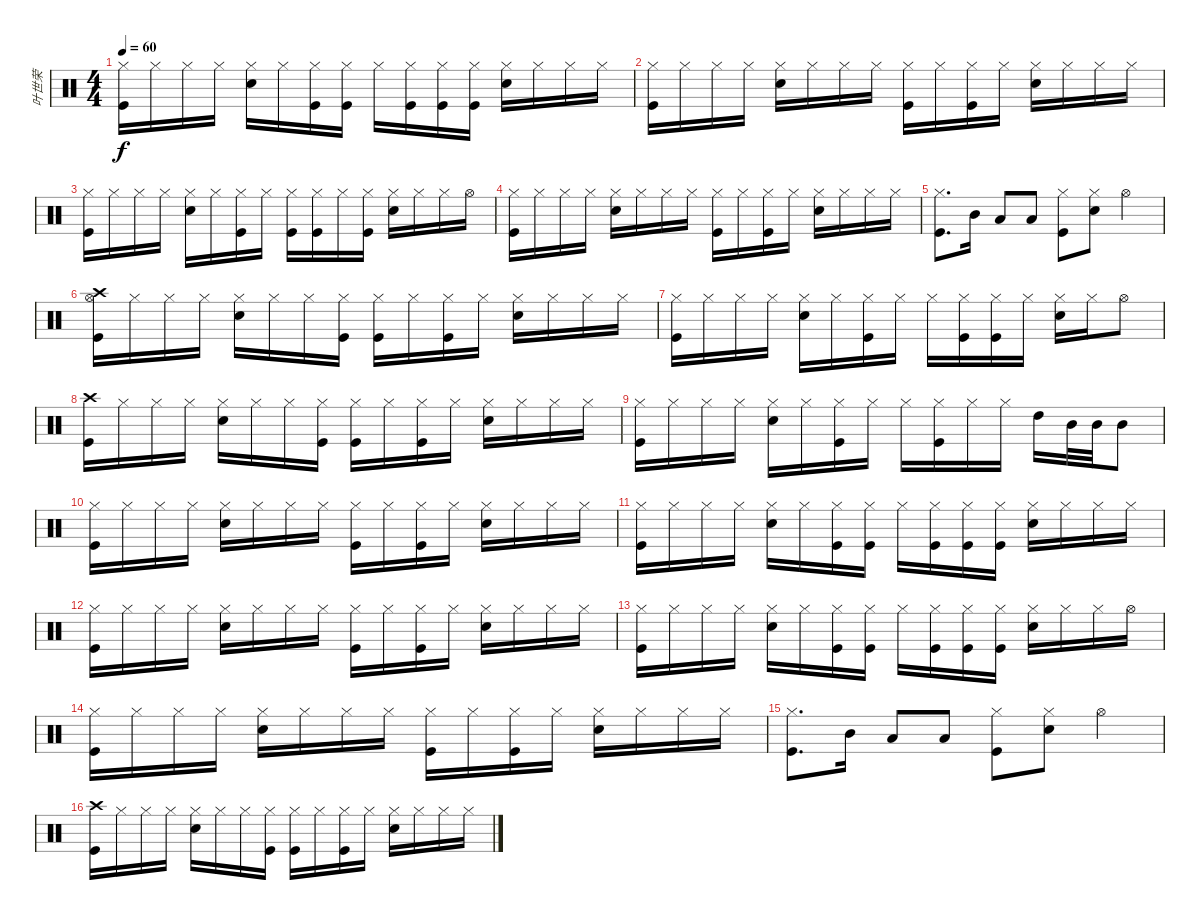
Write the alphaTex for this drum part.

\track ("叶世荣" "叶世荣") {instrument percussion}
\staff {score}
\articulation defaults
\ts (4 4)
\tempo 60
\clef neutral
\ks c
("Hi-Hat (closed)" "Kick (hit)").16{dy f} "Hi-Hat (closed)".16 "Hi-Hat (closed)".16 "Hi-Hat (closed)".16 ("Hi-Hat (closed)" "Snare (hit) 2").16 "Hi-Hat (closed)".16 ("Hi-Hat (closed)" "Kick (hit)").16 ("Hi-Hat (closed)" "Kick (hit)").16 "Hi-Hat (closed)".16 ("Hi-Hat (closed)" "Kick (hit)").16 ("Hi-Hat (closed)" "Kick (hit)").16 ("Hi-Hat (closed)" "Kick (hit)").16 ("Hi-Hat (closed)" "Snare (hit) 2").16 "Hi-Hat (closed)".16 "Hi-Hat (closed)".16 "Hi-Hat (closed)".16 |
("Hi-Hat (closed)" "Kick (hit)").16 "Hi-Hat (closed)".16 "Hi-Hat (closed)".16 "Hi-Hat (closed)".16 ("Hi-Hat (closed)" "Snare (hit) 2").16 "Hi-Hat (closed)".16 "Hi-Hat (closed)".16 "Hi-Hat (closed)".16 ("Hi-Hat (closed)" "Kick (hit)").16 "Hi-Hat (closed)".16 ("Hi-Hat (closed)" "Kick (hit)").16 "Hi-Hat (closed)".16 ("Hi-Hat (closed)" "Snare (hit) 2").16 "Hi-Hat (closed)".16 "Hi-Hat (closed)".16 "Hi-Hat (closed)".16 |
("Hi-Hat (closed)" "Kick (hit)").16 "Hi-Hat (closed)".16 "Hi-Hat (closed)".16 "Hi-Hat (closed)".16 ("Hi-Hat (closed)" "Snare (hit) 2").16 "Hi-Hat (closed)".16 ("Hi-Hat (closed)" "Kick (hit)").16 "Hi-Hat (closed)".16 ("Hi-Hat (closed)" "Kick (hit)").16 ("Hi-Hat (closed)" "Kick (hit)").16 "Hi-Hat (closed)".16 ("Hi-Hat (closed)" "Kick (hit)").16 ("Hi-Hat (closed)" "Snare (hit) 2").16 "Hi-Hat (closed)".16 "Hi-Hat (closed)".16 "Hi-Hat (open)".16 |
("Hi-Hat (closed)" "Kick (hit)").16 "Hi-Hat (closed)".16 "Hi-Hat (closed)".16 "Hi-Hat (closed)".16 ("Hi-Hat (closed)" "Snare (hit) 2").16 "Hi-Hat (closed)".16 "Hi-Hat (closed)".16 "Hi-Hat (closed)".16 ("Hi-Hat (closed)" "Kick (hit)").16 "Hi-Hat (closed)".16 ("Hi-Hat (closed)" "Kick (hit)").16 "Hi-Hat (closed)".16 ("Hi-Hat (closed)" "Snare (hit) 2").16 "Hi-Hat (closed)".16 "Hi-Hat (closed)".16 "Hi-Hat (closed)".16 |
("Hi-Hat (closed)" "Kick (hit)").8{d} "Mid Tom (hit)".16 "Low Tom (hit)".8 "Low Floor Tom (hit)".8 ("Hi-Hat (closed)" "Kick (hit)").8 ("Hi-Hat (closed)" "Snare (hit) 2").8 "Hi-Hat (open)".4 |
("Crash high (hit)" "Hi-Hat (open)" "Kick (hit)").16 "Hi-Hat (closed)".16 "Hi-Hat (closed)".16 "Hi-Hat (closed)".16 ("Hi-Hat (closed)" "Snare (hit) 2").16 "Hi-Hat (closed)".16 "Hi-Hat (closed)".16 ("Hi-Hat (closed)" "Kick (hit)").16 ("Hi-Hat (closed)" "Kick (hit)").16 "Hi-Hat (closed)".16 ("Hi-Hat (closed)" "Kick (hit)").16 "Hi-Hat (closed)".16 ("Hi-Hat (closed)" "Snare (hit) 2").16 "Hi-Hat (closed)".16 "Hi-Hat (closed)".16 "Hi-Hat (closed)".16 |
("Hi-Hat (closed)" "Kick (hit)").16 "Hi-Hat (closed)".16 "Hi-Hat (closed)".16 "Hi-Hat (closed)".16 ("Hi-Hat (closed)" "Snare (hit) 2").16 "Hi-Hat (closed)".16 ("Hi-Hat (closed)" "Kick (hit)").16 "Hi-Hat (closed)".16 "Hi-Hat (closed)".16 ("Hi-Hat (closed)" "Kick (hit)").16 ("Hi-Hat (closed)" "Kick (hit)").16 "Hi-Hat (closed)".16 ("Hi-Hat (closed)" "Snare (hit) 2").16 "Hi-Hat (closed)".16 "Hi-Hat (open)".8 |
("Crash high (hit)" "Kick (hit)").16 "Hi-Hat (closed)".16 "Hi-Hat (closed)".16 "Hi-Hat (closed)".16 ("Hi-Hat (closed)" "Snare (hit) 2").16 "Hi-Hat (closed)".16 "Hi-Hat (closed)".16 ("Hi-Hat (closed)" "Kick (hit)").16 ("Hi-Hat (closed)" "Kick (hit)").16 "Hi-Hat (closed)".16 ("Hi-Hat (closed)" "Kick (hit)").16 "Hi-Hat (closed)".16 ("Hi-Hat (closed)" "Snare (hit) 2").16 "Hi-Hat (closed)".16 "Hi-Hat (closed)".16 "Hi-Hat (closed)".16 |
("Hi-Hat (closed)" "Kick (hit)").16 "Hi-Hat (closed)".16 "Hi-Hat (closed)".16 "Hi-Hat (closed)".16 ("Hi-Hat (closed)" "Snare (hit) 2").16 "Hi-Hat (closed)".16 ("Hi-Hat (closed)" "Kick (hit)").16 "Hi-Hat (closed)".16 "Hi-Hat (closed)".16 ("Hi-Hat (closed)" "Kick (hit)").16 "Hi-Hat (closed)".16 "Hi-Hat (closed)".16 "High Tom (hit)".16 "Mid Tom (hit)".32 "Mid Tom (hit)".32 "Mid Tom (hit)".8 |
("Hi-Hat (closed)" "Kick (hit)").16 "Hi-Hat (closed)".16 "Hi-Hat (closed)".16 "Hi-Hat (closed)".16 ("Hi-Hat (closed)" "Snare (hit) 2").16 "Hi-Hat (closed)".16 "Hi-Hat (closed)".16 "Hi-Hat (closed)".16 ("Hi-Hat (closed)" "Kick (hit)").16 "Hi-Hat (closed)".16 ("Hi-Hat (closed)" "Kick (hit)").16 "Hi-Hat (closed)".16 ("Hi-Hat (closed)" "Snare (hit) 2").16 "Hi-Hat (closed)".16 "Hi-Hat (closed)".16 "Hi-Hat (closed)".16 |
("Hi-Hat (closed)" "Kick (hit)").16 "Hi-Hat (closed)".16 "Hi-Hat (closed)".16 "Hi-Hat (closed)".16 ("Hi-Hat (closed)" "Snare (hit) 2").16 "Hi-Hat (closed)".16 ("Hi-Hat (closed)" "Kick (hit)").16 ("Hi-Hat (closed)" "Kick (hit)").16 "Hi-Hat (closed)".16 ("Hi-Hat (closed)" "Kick (hit)").16 ("Hi-Hat (closed)" "Kick (hit)").16 ("Hi-Hat (closed)" "Kick (hit)").16 ("Hi-Hat (closed)" "Snare (hit) 2").16 "Hi-Hat (closed)".16 "Hi-Hat (closed)".16 "Hi-Hat (closed)".16 |
("Hi-Hat (closed)" "Kick (hit)").16 "Hi-Hat (closed)".16 "Hi-Hat (closed)".16 "Hi-Hat (closed)".16 ("Hi-Hat (closed)" "Snare (hit) 2").16 "Hi-Hat (closed)".16 "Hi-Hat (closed)".16 "Hi-Hat (closed)".16 ("Hi-Hat (closed)" "Kick (hit)").16 "Hi-Hat (closed)".16 ("Hi-Hat (closed)" "Kick (hit)").16 "Hi-Hat (closed)".16 ("Hi-Hat (closed)" "Snare (hit) 2").16 "Hi-Hat (closed)".16 "Hi-Hat (closed)".16 "Hi-Hat (closed)".16 |
("Hi-Hat (closed)" "Kick (hit)").16 "Hi-Hat (closed)".16 "Hi-Hat (closed)".16 "Hi-Hat (closed)".16 ("Hi-Hat (closed)" "Snare (hit) 2").16 "Hi-Hat (closed)".16 ("Hi-Hat (closed)" "Kick (hit)").16 ("Hi-Hat (closed)" "Kick (hit)").16 "Hi-Hat (closed)".16 ("Hi-Hat (closed)" "Kick (hit)").16 ("Hi-Hat (closed)" "Kick (hit)").16 ("Hi-Hat (closed)" "Kick (hit)").16 ("Hi-Hat (closed)" "Snare (hit) 2").16 "Hi-Hat (closed)".16 "Hi-Hat (closed)".16 "Hi-Hat (open)".16 |
("Hi-Hat (closed)" "Kick (hit)").16 "Hi-Hat (closed)".16 "Hi-Hat (closed)".16 "Hi-Hat (closed)".16 ("Hi-Hat (closed)" "Snare (hit) 2").16 "Hi-Hat (closed)".16 "Hi-Hat (closed)".16 "Hi-Hat (closed)".16 ("Hi-Hat (closed)" "Kick (hit)").16 "Hi-Hat (closed)".16 ("Hi-Hat (closed)" "Kick (hit)").16 "Hi-Hat (closed)".16 ("Hi-Hat (closed)" "Snare (hit) 2").16 "Hi-Hat (closed)".16 "Hi-Hat (closed)".16 "Hi-Hat (closed)".16 |
("Hi-Hat (closed)" "Kick (hit)").8{d} "Mid Tom (hit)".16 "Low Tom (hit)".8 "Low Floor Tom (hit)".8 ("Hi-Hat (closed)" "Kick (hit)").8 ("Hi-Hat (closed)" "Snare (hit) 2").8 "Hi-Hat (open)".4 |
("Crash high (hit)" "Kick (hit)").16 "Hi-Hat (closed)".16 "Hi-Hat (closed)".16 "Hi-Hat (closed)".16 ("Hi-Hat (closed)" "Snare (hit) 2").16 "Hi-Hat (closed)".16 "Hi-Hat (closed)".16 ("Hi-Hat (closed)" "Kick (hit)").16 ("Hi-Hat (closed)" "Kick (hit)").16 "Hi-Hat (closed)".16 ("Hi-Hat (closed)" "Kick (hit)").16 "Hi-Hat (closed)".16 ("Hi-Hat (closed)" "Snare (hit) 2").16 "Hi-Hat (closed)".16 "Hi-Hat (closed)".16 "Hi-Hat (closed)".16
